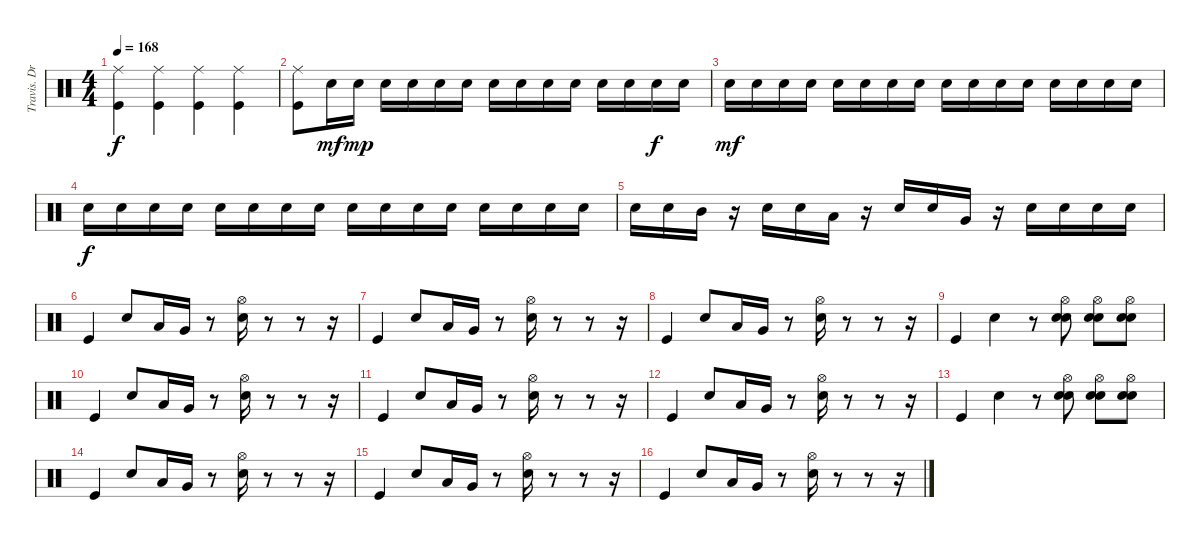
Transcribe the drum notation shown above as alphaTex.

\track ("Travis. Drums" "Travis. Dr") {instrument percussion}
\staff {score}
\articulation defaults
\ts (4 4)
\tempo 168
\clef neutral
\ks c
("Ride (middle)" "Kick (hit)").4{dy f} ("Ride (middle)" "Kick (hit)").4 ("Ride (middle)" "Kick (hit)").4 ("Ride (middle)" "Kick (hit)").4 |
("Ride (middle)" "Kick (hit)").8 "Snare (hit) 2".16{dy mf} "Snare (hit) 2".16{dy mp} "Snare (hit) 2".16 "Snare (hit) 2".16 "Snare (hit) 2".16 "Snare (hit) 2".16 "Snare (hit) 2".16 "Snare (hit) 2".16 "Snare (hit) 2".16 "Snare (hit) 2".16 "Snare (hit) 2".16 "Snare (hit) 2".16 "Snare (hit) 2".16{dy f} "Snare (hit) 2".16 |
"Snare (hit) 2".16{dy mf} "Snare (hit) 2".16 "Snare (hit) 2".16 "Snare (hit) 2".16 "Snare (hit) 2".16 "Snare (hit) 2".16 "Snare (hit) 2".16 "Snare (hit) 2".16 "Snare (hit) 2".16 "Snare (hit) 2".16 "Snare (hit) 2".16 "Snare (hit) 2".16 "Snare (hit) 2".16 "Snare (hit) 2".16 "Snare (hit) 2".16 "Snare (hit) 2".16 |
"Snare (hit) 2".16{dy f} "Snare (hit) 2".16 "Snare (hit) 2".16 "Snare (hit) 2".16 "Snare (hit) 2".16 "Snare (hit) 2".16 "Snare (hit) 2".16 "Snare (hit) 2".16 "Snare (hit) 2".16 "Snare (hit) 2".16 "Snare (hit) 2".16 "Snare (hit) 2".16 "Snare (hit) 2".16 "Snare (hit) 2".16 "Snare (hit) 2".16 "Snare (hit) 2".16 |
"Snare (hit) 2".16 "Snare (hit) 2".16 "Mid Tom (hit)".16 r.16 "Snare (hit) 2".16 "Snare (hit) 2".16 "Low Tom (hit)".16 r.16 "Snare (hit) 2".16 "Snare (hit) 2".16 "Very Low Tom (hit)".16 r.16 "Snare (hit) 2".16 "Snare (hit) 2".16 "Snare (hit) 2".16 "Snare (hit) 2".16 |
"Kick (hit)".4 "Snare (hit) 2".8 "Low Tom (hit)".16 "Very Low Tom (hit)".16 r.8 ("Hi-Hat (open)" "Snare (hit) 2").16 r.8 r.8 r.16 |
"Kick (hit)".4 "Snare (hit) 2".8 "Low Tom (hit)".16 "Very Low Tom (hit)".16 r.8 ("Hi-Hat (open)" "Snare (hit) 2").16 r.8 r.8 r.16 |
"Kick (hit)".4 "Snare (hit) 2".8 "Low Tom (hit)".16 "Very Low Tom (hit)".16 r.8 ("Hi-Hat (open)" "Snare (hit) 2").16 r.8 r.8 r.16 |
"Kick (hit)".4 "Snare (hit) 2".4 r.8 ("Hi-Hat (open)" "Hand Clap (hit)" "Snare (hit) 2").8 ("Hi-Hat (open)" "Hand Clap (hit)" "Snare (hit) 2").8 ("Hi-Hat (open)" "Hand Clap (hit)" "Snare (hit) 2").8 |
"Kick (hit)".4 "Snare (hit) 2".8 "Low Tom (hit)".16 "Very Low Tom (hit)".16 r.8 ("Hi-Hat (open)" "Snare (hit) 2").16 r.8 r.8 r.16 |
"Kick (hit)".4 "Snare (hit) 2".8 "Low Tom (hit)".16 "Very Low Tom (hit)".16 r.8 ("Hi-Hat (open)" "Snare (hit) 2").16 r.8 r.8 r.16 |
"Kick (hit)".4 "Snare (hit) 2".8 "Low Tom (hit)".16 "Very Low Tom (hit)".16 r.8 ("Hi-Hat (open)" "Snare (hit) 2").16 r.8 r.8 r.16 |
"Kick (hit)".4 "Snare (hit) 2".4 r.8 ("Hi-Hat (open)" "Hand Clap (hit)" "Snare (hit) 2").8 ("Hi-Hat (open)" "Hand Clap (hit)" "Snare (hit) 2").8 ("Hi-Hat (open)" "Hand Clap (hit)" "Snare (hit) 2").8 |
"Kick (hit)".4 "Snare (hit) 2".8 "Low Tom (hit)".16 "Very Low Tom (hit)".16 r.8 ("Hi-Hat (open)" "Snare (hit) 2").16 r.8 r.8 r.16 |
"Kick (hit)".4 "Snare (hit) 2".8 "Low Tom (hit)".16 "Very Low Tom (hit)".16 r.8 ("Hi-Hat (open)" "Snare (hit) 2").16 r.8 r.8 r.16 |
"Kick (hit)".4 "Snare (hit) 2".8 "Low Tom (hit)".16 "Very Low Tom (hit)".16 r.8 ("Hi-Hat (open)" "Snare (hit) 2").16 r.8 r.8 r.16
